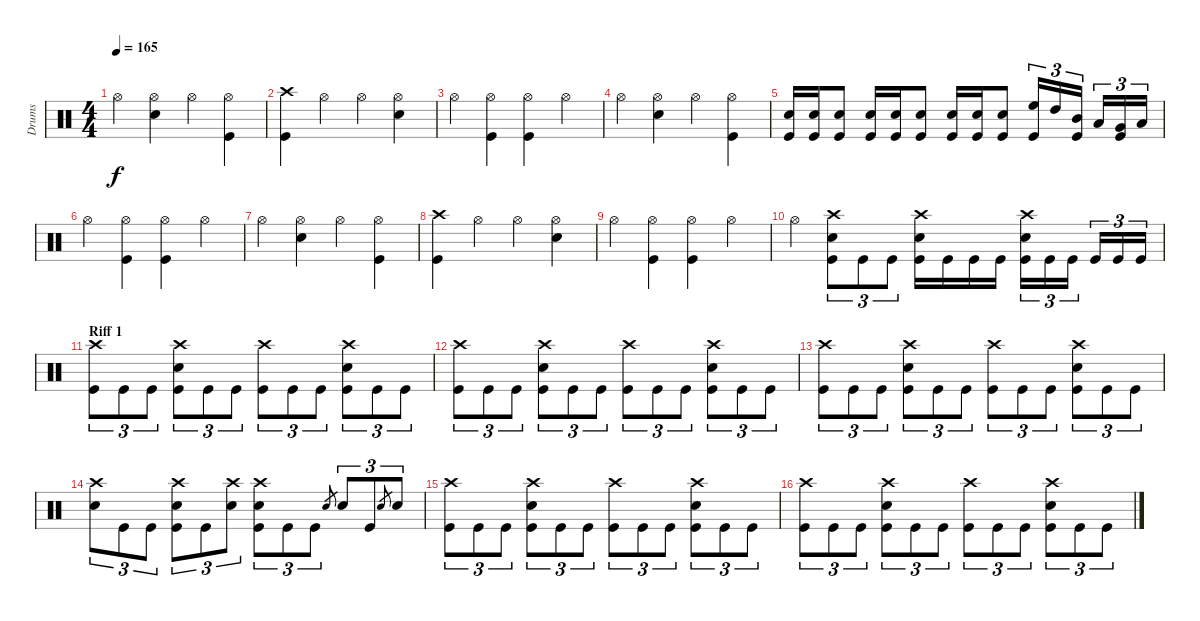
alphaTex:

\track ("Drums" "Drums") {instrument percussion}
\staff {score}
\articulation defaults
\ts (4 4)
\tempo 165
\clef neutral
\ks c "Hi-Hat (open)".4{dy f}
("Hi-Hat (open)" "Electric Snare (hit)").4 "Hi-Hat (open)".4 ("Hi-Hat (open)" "Kick (hit)").4 |
("Crash high (hit)" "Kick (hit)").4 "Hi-Hat (open)".4 "Hi-Hat (open)".4 ("Hi-Hat (open)" "Electric Snare (hit)").4 |
"Hi-Hat (open)".4 ("Hi-Hat (open)" "Kick (hit)").4 ("Hi-Hat (open)" "Kick (hit)").4 "Hi-Hat (open)".4 |
"Hi-Hat (open)".4 ("Hi-Hat (open)" "Electric Snare (hit)").4 "Hi-Hat (open)".4 ("Hi-Hat (open)" "Kick (hit)").4 |
("Electric Snare (hit)" "Kick (hit)").16 ("Electric Snare (hit)" "Kick (hit)").16 ("Electric Snare (hit)" "Kick (hit)").8 ("Electric Snare (hit)" "Kick (hit)").16 ("Electric Snare (hit)" "Kick (hit)").16 ("Electric Snare (hit)" "Kick (hit)").8 ("Electric Snare (hit)" "Kick (hit)").16 ("Electric Snare (hit)" "Kick (hit)").16 ("Electric Snare (hit)" "Kick (hit)").8 ("High Floor Tom (hit)" "Kick (hit)").16{tu (3 2)} "High Tom (hit)".16{tu (3 2)} ("Mid Tom (hit)" "Kick (hit)").16{tu (3 2)} "Low Tom (hit)".16{tu (3 2)} ("Very Low Tom (hit)" "Kick (hit)").16{tu (3 2)} "Low Floor Tom (hit)".16{tu (3 2)} |
"Hi-Hat (open)".4 ("Hi-Hat (open)" "Kick (hit)").4 ("Hi-Hat (open)" "Kick (hit)").4 "Hi-Hat (open)".4 |
"Hi-Hat (open)".4 ("Hi-Hat (open)" "Electric Snare (hit)").4 "Hi-Hat (open)".4 ("Hi-Hat (open)" "Kick (hit)").4 |
("Crash high (hit)" "Kick (hit)").4 "Hi-Hat (open)".4 "Hi-Hat (open)".4 ("Hi-Hat (open)" "Electric Snare (hit)").4 |
"Hi-Hat (open)".4 ("Hi-Hat (open)" "Kick (hit)").4 ("Hi-Hat (open)" "Kick (hit)").4 "Hi-Hat (open)".4 |
"Hi-Hat (open)".4 ("Crash high (hit)" "Electric Snare (hit)" "Kick (hit)").8{tu (3 2)} "Kick (hit)".8{tu (3 2)} "Kick (hit)".8{tu (3 2)} ("Crash high (hit)" "Electric Snare (hit)" "Kick (hit)").16 "Kick (hit)".16 "Kick (hit)".16 "Kick (hit)".16 ("Crash high (hit)" "Electric Snare (hit)" "Kick (hit)").16{tu (3 2)} "Kick (hit)".16{tu (3 2)} "Kick (hit)".16{tu (3 2)} "Kick (hit)".16{tu (3 2)} "Kick (hit)".16{tu (3 2)} "Kick (hit)".16{tu (3 2)} |
\section ("" "Riff 1")
("Crash high (hit)" "Kick (hit)").8{tu (3 2)} "Kick (hit)".8{tu (3 2)} "Kick (hit)".8{tu (3 2)} ("Crash high (hit)" "Electric Snare (hit)" "Kick (hit)").8{tu (3 2)} "Kick (hit)".8{tu (3 2)} "Kick (hit)".8{tu (3 2)} ("Crash high (hit)" "Kick (hit)").8{tu (3 2)} "Kick (hit)".8{tu (3 2)} "Kick (hit)".8{tu (3 2)} ("Crash high (hit)" "Electric Snare (hit)" "Kick (hit)").8{tu (3 2)} "Kick (hit)".8{tu (3 2)} "Kick (hit)".8{tu (3 2)} |
("Crash high (hit)" "Kick (hit)").8{tu (3 2)} "Kick (hit)".8{tu (3 2)} "Kick (hit)".8{tu (3 2)} ("Crash high (hit)" "Electric Snare (hit)" "Kick (hit)").8{tu (3 2)} "Kick (hit)".8{tu (3 2)} "Kick (hit)".8{tu (3 2)} ("Crash high (hit)" "Kick (hit)").8{tu (3 2)} "Kick (hit)".8{tu (3 2)} "Kick (hit)".8{tu (3 2)} ("Crash high (hit)" "Electric Snare (hit)" "Kick (hit)").8{tu (3 2)} "Kick (hit)".8{tu (3 2)} "Kick (hit)".8{tu (3 2)} |
("Crash high (hit)" "Kick (hit)").8{tu (3 2)} "Kick (hit)".8{tu (3 2)} "Kick (hit)".8{tu (3 2)} ("Crash high (hit)" "Electric Snare (hit)" "Kick (hit)").8{tu (3 2)} "Kick (hit)".8{tu (3 2)} "Kick (hit)".8{tu (3 2)} ("Crash high (hit)" "Kick (hit)").8{tu (3 2)} "Kick (hit)".8{tu (3 2)} "Kick (hit)".8{tu (3 2)} ("Crash high (hit)" "Electric Snare (hit)" "Kick (hit)").8{tu (3 2)} "Kick (hit)".8{tu (3 2)} "Kick (hit)".8{tu (3 2)} |
("Crash high (hit)" "Electric Snare (hit)").8{tu (3 2)} "Kick (hit)".8{tu (3 2)} "Kick (hit)".8{tu (3 2)} ("Crash high (hit)" "Electric Snare (hit)" "Kick (hit)").8{tu (3 2)} "Kick (hit)".8{tu (3 2)} ("Crash high (hit)" "Electric Snare (hit)").8{tu (3 2)} ("Crash high (hit)" "Electric Snare (hit)" "Kick (hit)").8{tu (3 2)} "Kick (hit)".8{tu (3 2)} "Kick (hit)".8{tu (3 2)} "Electric Snare (hit)".8{gr} "Electric Snare (hit)".8{tu (3 2)} "Kick (hit)".8{tu (3 2)} "Electric Snare (hit)".8{gr} "Electric Snare (hit)".8{tu (3 2)} |
("Crash high (hit)" "Kick (hit)").8{tu (3 2)} "Kick (hit)".8{tu (3 2)} "Kick (hit)".8{tu (3 2)} ("Crash high (hit)" "Electric Snare (hit)" "Kick (hit)").8{tu (3 2)} "Kick (hit)".8{tu (3 2)} "Kick (hit)".8{tu (3 2)} ("Crash high (hit)" "Kick (hit)").8{tu (3 2)} "Kick (hit)".8{tu (3 2)} "Kick (hit)".8{tu (3 2)} ("Crash high (hit)" "Electric Snare (hit)" "Kick (hit)").8{tu (3 2)} "Kick (hit)".8{tu (3 2)} "Kick (hit)".8{tu (3 2)} |
("Crash high (hit)" "Kick (hit)").8{tu (3 2)} "Kick (hit)".8{tu (3 2)} "Kick (hit)".8{tu (3 2)} ("Crash high (hit)" "Electric Snare (hit)" "Kick (hit)").8{tu (3 2)} "Kick (hit)".8{tu (3 2)} "Kick (hit)".8{tu (3 2)} ("Crash high (hit)" "Kick (hit)").8{tu (3 2)} "Kick (hit)".8{tu (3 2)} "Kick (hit)".8{tu (3 2)} ("Crash high (hit)" "Electric Snare (hit)" "Kick (hit)").8{tu (3 2)} "Kick (hit)".8{tu (3 2)} "Kick (hit)".8{tu (3 2)}
